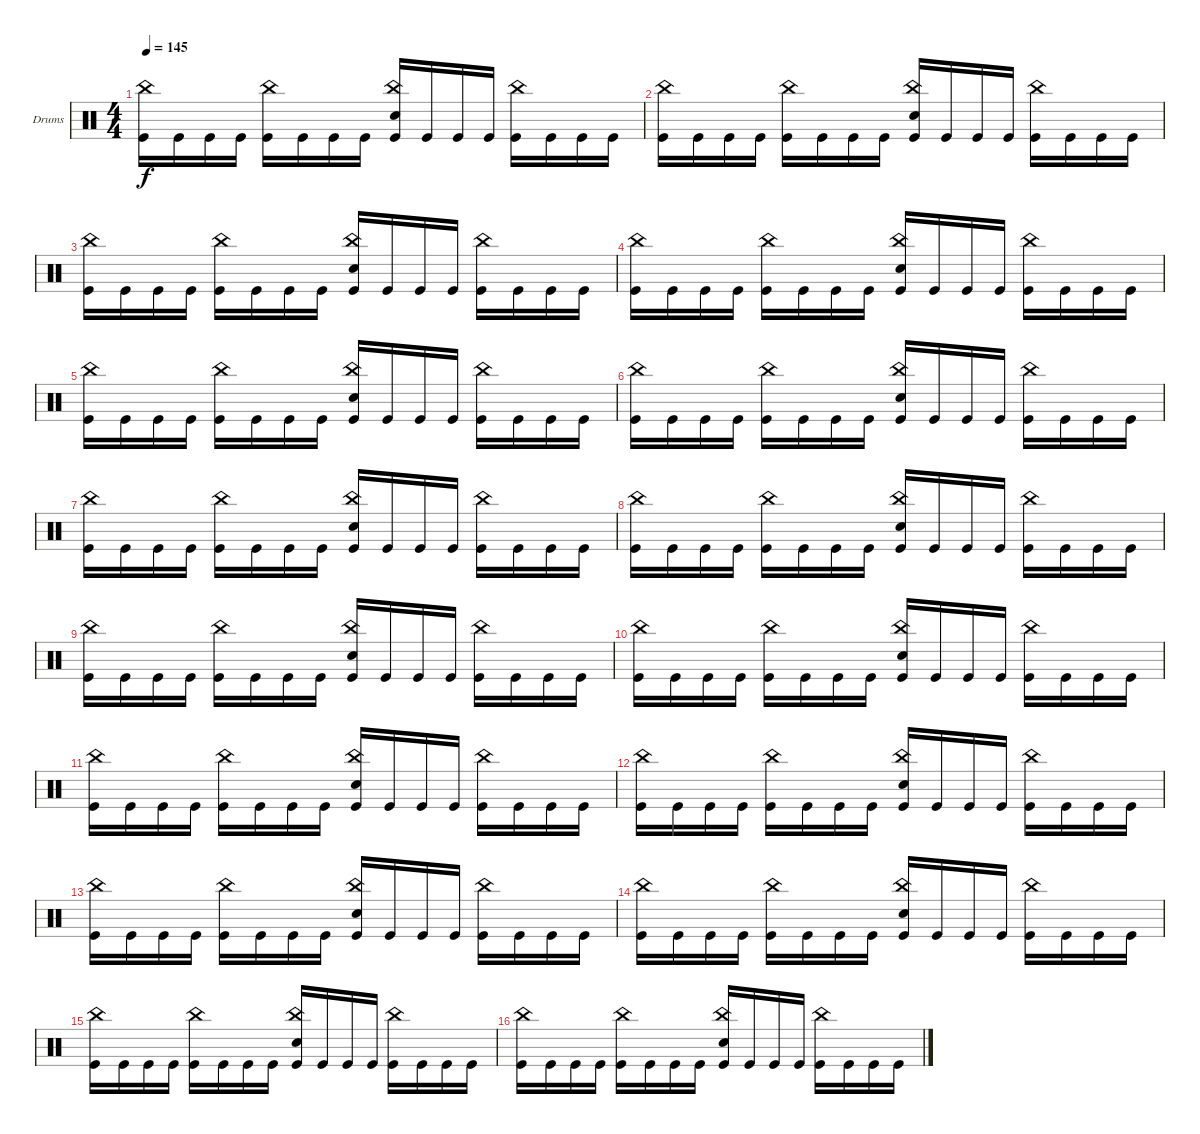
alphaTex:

\bracketExtendMode groupsimilarinstruments
\firstSystemTrackNameOrientation horizontal
\otherSystemsTrackNameOrientation horizontal
\track ("Drumkit" "Drums") {instrument percussion}
\staff {score}
\articulation defaults
\ts (4 4)
\tempo 145
\clef neutral
\ks c
("Kick (hit)" "China (hit)").16{dy f} "Kick (hit)".16 "Kick (hit)".16 "Kick (hit)".16 ("Kick (hit)" "China (hit)").16 "Kick (hit)".16 "Kick (hit)".16 "Kick (hit)".16 ("Snare (hit) 2" "Kick (hit)" "China (hit)").16 "Kick (hit)".16 "Kick (hit)".16 "Kick (hit)".16 ("Kick (hit)" "China (hit)").16 "Kick (hit)".16 "Kick (hit)".16 "Kick (hit)".16 |
("Kick (hit)" "China (hit)").16 "Kick (hit)".16 "Kick (hit)".16 "Kick (hit)".16 ("Kick (hit)" "China (hit)").16 "Kick (hit)".16 "Kick (hit)".16 "Kick (hit)".16 ("Snare (hit) 2" "Kick (hit)" "China (hit)").16 "Kick (hit)".16 "Kick (hit)".16 "Kick (hit)".16 ("Kick (hit)" "China (hit)").16 "Kick (hit)".16 "Kick (hit)".16 "Kick (hit)".16 |
("Kick (hit)" "China (hit)").16 "Kick (hit)".16 "Kick (hit)".16 "Kick (hit)".16 ("Kick (hit)" "China (hit)").16 "Kick (hit)".16 "Kick (hit)".16 "Kick (hit)".16 ("Snare (hit) 2" "Kick (hit)" "China (hit)").16 "Kick (hit)".16 "Kick (hit)".16 "Kick (hit)".16 ("Kick (hit)" "China (hit)").16 "Kick (hit)".16 "Kick (hit)".16 "Kick (hit)".16 |
("Kick (hit)" "China (hit)").16 "Kick (hit)".16 "Kick (hit)".16 "Kick (hit)".16 ("Kick (hit)" "China (hit)").16 "Kick (hit)".16 "Kick (hit)".16 "Kick (hit)".16 ("Snare (hit) 2" "Kick (hit)" "China (hit)").16 "Kick (hit)".16 "Kick (hit)".16 "Kick (hit)".16 ("Kick (hit)" "China (hit)").16 "Kick (hit)".16 "Kick (hit)".16 "Kick (hit)".16 |
("Kick (hit)" "China (hit)").16 "Kick (hit)".16 "Kick (hit)".16 "Kick (hit)".16 ("Kick (hit)" "China (hit)").16 "Kick (hit)".16 "Kick (hit)".16 "Kick (hit)".16 ("Snare (hit) 2" "Kick (hit)" "China (hit)").16 "Kick (hit)".16 "Kick (hit)".16 "Kick (hit)".16 ("Kick (hit)" "China (hit)").16 "Kick (hit)".16 "Kick (hit)".16 "Kick (hit)".16 |
("Kick (hit)" "China (hit)").16 "Kick (hit)".16 "Kick (hit)".16 "Kick (hit)".16 ("Kick (hit)" "China (hit)").16 "Kick (hit)".16 "Kick (hit)".16 "Kick (hit)".16 ("Snare (hit) 2" "Kick (hit)" "China (hit)").16 "Kick (hit)".16 "Kick (hit)".16 "Kick (hit)".16 ("Kick (hit)" "China (hit)").16 "Kick (hit)".16 "Kick (hit)".16 "Kick (hit)".16 |
("Kick (hit)" "China (hit)").16 "Kick (hit)".16 "Kick (hit)".16 "Kick (hit)".16 ("Kick (hit)" "China (hit)").16 "Kick (hit)".16 "Kick (hit)".16 "Kick (hit)".16 ("Snare (hit) 2" "Kick (hit)" "China (hit)").16 "Kick (hit)".16 "Kick (hit)".16 "Kick (hit)".16 ("Kick (hit)" "China (hit)").16 "Kick (hit)".16 "Kick (hit)".16 "Kick (hit)".16 |
("Kick (hit)" "China (hit)").16 "Kick (hit)".16 "Kick (hit)".16 "Kick (hit)".16 ("Kick (hit)" "China (hit)").16 "Kick (hit)".16 "Kick (hit)".16 "Kick (hit)".16 ("Snare (hit) 2" "Kick (hit)" "China (hit)").16 "Kick (hit)".16 "Kick (hit)".16 "Kick (hit)".16 ("Kick (hit)" "China (hit)").16 "Kick (hit)".16 "Kick (hit)".16 "Kick (hit)".16 |
("Kick (hit)" "China (hit)").16 "Kick (hit)".16 "Kick (hit)".16 "Kick (hit)".16 ("Kick (hit)" "China (hit)").16 "Kick (hit)".16 "Kick (hit)".16 "Kick (hit)".16 ("Snare (hit) 2" "Kick (hit)" "China (hit)").16 "Kick (hit)".16 "Kick (hit)".16 "Kick (hit)".16 ("Kick (hit)" "China (hit)").16 "Kick (hit)".16 "Kick (hit)".16 "Kick (hit)".16 |
("Kick (hit)" "China (hit)").16 "Kick (hit)".16 "Kick (hit)".16 "Kick (hit)".16 ("Kick (hit)" "China (hit)").16 "Kick (hit)".16 "Kick (hit)".16 "Kick (hit)".16 ("Snare (hit) 2" "Kick (hit)" "China (hit)").16 "Kick (hit)".16 "Kick (hit)".16 "Kick (hit)".16 ("Kick (hit)" "China (hit)").16 "Kick (hit)".16 "Kick (hit)".16 "Kick (hit)".16 |
("Kick (hit)" "China (hit)").16 "Kick (hit)".16 "Kick (hit)".16 "Kick (hit)".16 ("Kick (hit)" "China (hit)").16 "Kick (hit)".16 "Kick (hit)".16 "Kick (hit)".16 ("Snare (hit) 2" "Kick (hit)" "China (hit)").16 "Kick (hit)".16 "Kick (hit)".16 "Kick (hit)".16 ("Kick (hit)" "China (hit)").16 "Kick (hit)".16 "Kick (hit)".16 "Kick (hit)".16 |
("Kick (hit)" "China (hit)").16 "Kick (hit)".16 "Kick (hit)".16 "Kick (hit)".16 ("Kick (hit)" "China (hit)").16 "Kick (hit)".16 "Kick (hit)".16 "Kick (hit)".16 ("Snare (hit) 2" "Kick (hit)" "China (hit)").16 "Kick (hit)".16 "Kick (hit)".16 "Kick (hit)".16 ("Kick (hit)" "China (hit)").16 "Kick (hit)".16 "Kick (hit)".16 "Kick (hit)".16 |
("Kick (hit)" "China (hit)").16 "Kick (hit)".16 "Kick (hit)".16 "Kick (hit)".16 ("Kick (hit)" "China (hit)").16 "Kick (hit)".16 "Kick (hit)".16 "Kick (hit)".16 ("Snare (hit) 2" "Kick (hit)" "China (hit)").16 "Kick (hit)".16 "Kick (hit)".16 "Kick (hit)".16 ("Kick (hit)" "China (hit)").16 "Kick (hit)".16 "Kick (hit)".16 "Kick (hit)".16 |
("Kick (hit)" "China (hit)").16 "Kick (hit)".16 "Kick (hit)".16 "Kick (hit)".16 ("Kick (hit)" "China (hit)").16 "Kick (hit)".16 "Kick (hit)".16 "Kick (hit)".16 ("Snare (hit) 2" "Kick (hit)" "China (hit)").16 "Kick (hit)".16 "Kick (hit)".16 "Kick (hit)".16 ("Kick (hit)" "China (hit)").16 "Kick (hit)".16 "Kick (hit)".16 "Kick (hit)".16 |
("Kick (hit)" "China (hit)").16 "Kick (hit)".16 "Kick (hit)".16 "Kick (hit)".16 ("Kick (hit)" "China (hit)").16 "Kick (hit)".16 "Kick (hit)".16 "Kick (hit)".16 ("Snare (hit) 2" "Kick (hit)" "China (hit)").16 "Kick (hit)".16 "Kick (hit)".16 "Kick (hit)".16 ("Kick (hit)" "China (hit)").16 "Kick (hit)".16 "Kick (hit)".16 "Kick (hit)".16 |
("Kick (hit)" "China (hit)").16 "Kick (hit)".16 "Kick (hit)".16 "Kick (hit)".16 ("Kick (hit)" "China (hit)").16 "Kick (hit)".16 "Kick (hit)".16 "Kick (hit)".16 ("Snare (hit) 2" "Kick (hit)" "China (hit)").16 "Kick (hit)".16 "Kick (hit)".16 "Kick (hit)".16 ("Kick (hit)" "China (hit)").16 "Kick (hit)".16 "Kick (hit)".16 "Kick (hit)".16
